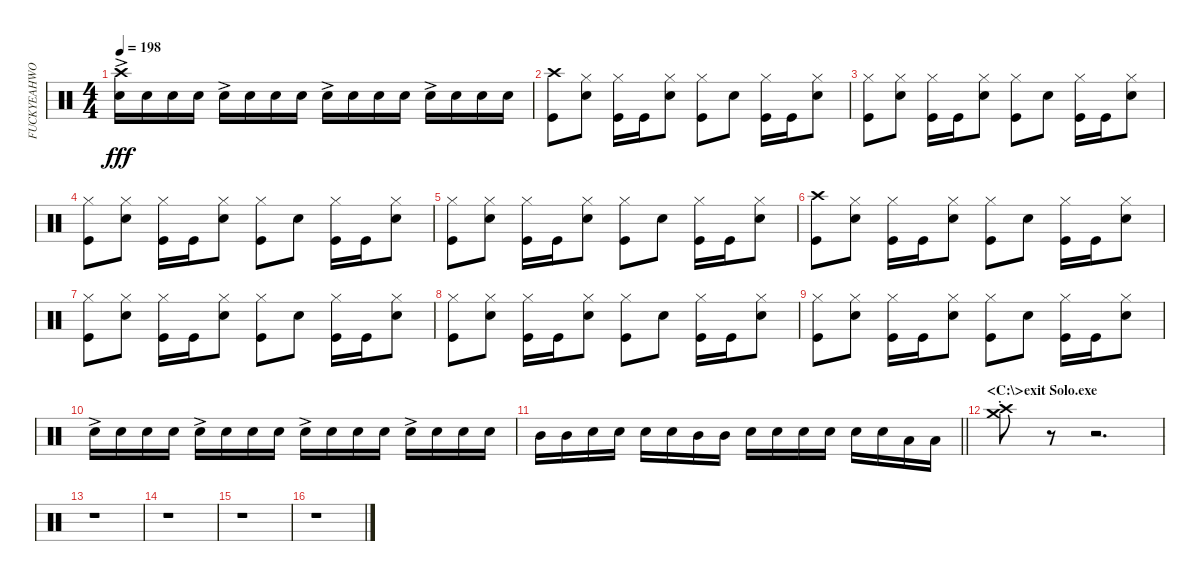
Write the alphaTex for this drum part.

\track ("FUCKYEAHWOOTDAVEMACKINTOSH!(Percussion)" "FUCKYEAHWO") {instrument percussion}
\staff {score}
\articulation defaults
\ts (4 4)
\tempo 198
\clef neutral
\ks c
("Crash high (hit)" "Snare (hit) 2"{ac}).16{dy fff} "Snare (hit) 2".16 "Snare (hit) 2".16 "Snare (hit) 2".16 "Snare (hit) 2"{ac}.16 "Snare (hit) 2".16 "Snare (hit) 2".16 "Snare (hit) 2".16 "Snare (hit) 2"{ac}.16 "Snare (hit) 2".16 "Snare (hit) 2".16 "Snare (hit) 2".16 "Snare (hit) 2"{ac}.16 "Snare (hit) 2".16 "Snare (hit) 2".16 "Snare (hit) 2".16 |
("Kick (hit)" "Crash high (hit)").8 ("Snare (hit) 2" "Hi-Hat (closed)").8 ("Kick (hit)" "Hi-Hat (closed)").16 "Kick (hit)".16 ("Snare (hit) 2" "Hi-Hat (closed)").8 ("Kick (hit)" "Hi-Hat (closed)").8 "Snare (hit) 2".8 ("Kick (hit)" "Hi-Hat (closed)").16 "Kick (hit)".16 ("Snare (hit) 2" "Hi-Hat (closed)").8 |
("Kick (hit)" "Hi-Hat (closed)").8 ("Snare (hit) 2" "Hi-Hat (closed)").8 ("Kick (hit)" "Hi-Hat (closed)").16 "Kick (hit)".16 ("Snare (hit) 2" "Hi-Hat (closed)").8 ("Kick (hit)" "Hi-Hat (closed)").8 "Snare (hit) 2".8 ("Kick (hit)" "Hi-Hat (closed)").16 "Kick (hit)".16 ("Snare (hit) 2" "Hi-Hat (closed)").8 |
("Kick (hit)" "Hi-Hat (closed)").8 ("Snare (hit) 2" "Hi-Hat (closed)").8 ("Kick (hit)" "Hi-Hat (closed)").16 "Kick (hit)".16 ("Snare (hit) 2" "Hi-Hat (closed)").8 ("Kick (hit)" "Hi-Hat (closed)").8 "Snare (hit) 2".8 ("Kick (hit)" "Hi-Hat (closed)").16 "Kick (hit)".16 ("Snare (hit) 2" "Hi-Hat (closed)").8 |
("Kick (hit)" "Hi-Hat (closed)").8 ("Snare (hit) 2" "Hi-Hat (closed)").8 ("Kick (hit)" "Hi-Hat (closed)").16 "Kick (hit)".16 ("Snare (hit) 2" "Hi-Hat (closed)").8 ("Kick (hit)" "Hi-Hat (closed)").8 "Snare (hit) 2".8 ("Kick (hit)" "Hi-Hat (closed)").16 "Kick (hit)".16 ("Snare (hit) 2" "Hi-Hat (closed)").8 |
("Kick (hit)" "Crash high (hit)").8 ("Snare (hit) 2" "Hi-Hat (closed)").8 ("Kick (hit)" "Hi-Hat (closed)").16 "Kick (hit)".16 ("Snare (hit) 2" "Hi-Hat (closed)").8 ("Kick (hit)" "Hi-Hat (closed)").8 "Snare (hit) 2".8 ("Kick (hit)" "Hi-Hat (closed)").16 "Kick (hit)".16 ("Snare (hit) 2" "Hi-Hat (closed)").8 |
("Kick (hit)" "Hi-Hat (closed)").8 ("Snare (hit) 2" "Hi-Hat (closed)").8 ("Kick (hit)" "Hi-Hat (closed)").16 "Kick (hit)".16 ("Snare (hit) 2" "Hi-Hat (closed)").8 ("Kick (hit)" "Hi-Hat (closed)").8 "Snare (hit) 2".8 ("Kick (hit)" "Hi-Hat (closed)").16 "Kick (hit)".16 ("Snare (hit) 2" "Hi-Hat (closed)").8 |
("Kick (hit)" "Hi-Hat (closed)").8 ("Snare (hit) 2" "Hi-Hat (closed)").8 ("Kick (hit)" "Hi-Hat (closed)").16 "Kick (hit)".16 ("Snare (hit) 2" "Hi-Hat (closed)").8 ("Kick (hit)" "Hi-Hat (closed)").8 "Snare (hit) 2".8 ("Kick (hit)" "Hi-Hat (closed)").16 "Kick (hit)".16 ("Snare (hit) 2" "Hi-Hat (closed)").8 |
("Kick (hit)" "Hi-Hat (closed)").8 ("Snare (hit) 2" "Hi-Hat (closed)").8 ("Kick (hit)" "Hi-Hat (closed)").16 "Kick (hit)".16 ("Snare (hit) 2" "Hi-Hat (closed)").8 ("Kick (hit)" "Hi-Hat (closed)").8 "Snare (hit) 2".8 ("Kick (hit)" "Hi-Hat (closed)").16 "Kick (hit)".16 ("Snare (hit) 2" "Hi-Hat (closed)").8 |
"Snare (hit) 2"{ac}.16 "Snare (hit) 2".16 "Snare (hit) 2".16 "Snare (hit) 2".16 "Snare (hit) 2"{ac}.16 "Snare (hit) 2".16 "Snare (hit) 2".16 "Snare (hit) 2".16 "Snare (hit) 2"{ac}.16 "Snare (hit) 2".16 "Snare (hit) 2".16 "Snare (hit) 2".16 "Snare (hit) 2"{ac}.16 "Snare (hit) 2".16 "Snare (hit) 2".16 "Snare (hit) 2".16 |
\barLineRight lightlight "Mid Tom (hit)".16 "Mid Tom (hit)".16 "Snare (hit) 2".16 "Snare (hit) 2".16 "Snare (hit) 2".16 "Snare (hit) 2".16 "Mid Tom (hit)".16 "Mid Tom (hit)".16 "Snare (hit) 2".16 "Snare (hit) 2".16 "Snare (hit) 2".16 "Snare (hit) 2".16 "Snare (hit) 2".16 "Snare (hit) 2".16 "Low Tom (hit)".16 "Low Tom (hit)".16
|
\section ("" "<C:\\>exit Solo.exe")
("Crash high (hit)"{st} "Crash medium (hit)").8 r.8 r.2{d} |
r.1 |
r.1 |
r.1 |
r.1
